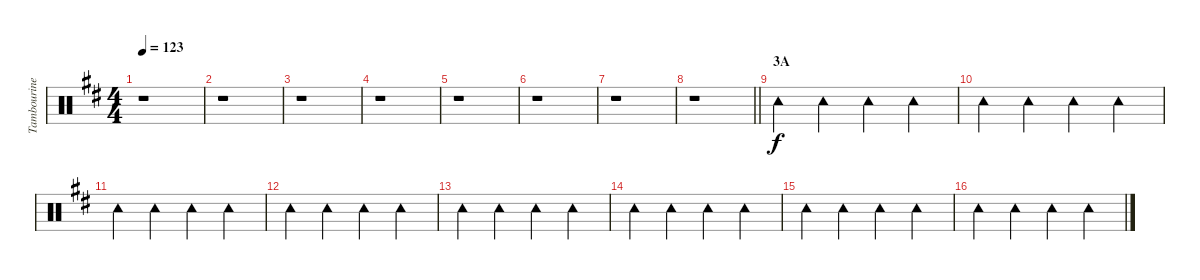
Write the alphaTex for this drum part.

\track ("Tambourine" "Tambourine") {instrument percussion}
\staff {score}
\articulation defaults
\ts (4 4)
\tempo 123
\clef neutral
\ks d
r.1{dy f} |
r.1 |
r.1 |
r.1 |
r.1 |
r.1 |
r.1 |
\barLineRight lightlight
r.1 |
\section ("" "3A")
"Tambourine (hit)".4 "Tambourine (hit)".4 "Tambourine (hit)".4 "Tambourine (hit)".4 |
"Tambourine (hit)".4 "Tambourine (hit)".4 "Tambourine (hit)".4 "Tambourine (hit)".4 |
"Tambourine (hit)".4 "Tambourine (hit)".4 "Tambourine (hit)".4 "Tambourine (hit)".4 |
"Tambourine (hit)".4 "Tambourine (hit)".4 "Tambourine (hit)".4 "Tambourine (hit)".4 |
"Tambourine (hit)".4 "Tambourine (hit)".4 "Tambourine (hit)".4 "Tambourine (hit)".4 |
"Tambourine (hit)".4 "Tambourine (hit)".4 "Tambourine (hit)".4 "Tambourine (hit)".4 |
"Tambourine (hit)".4 "Tambourine (hit)".4 "Tambourine (hit)".4 "Tambourine (hit)".4 |
"Tambourine (hit)".4 "Tambourine (hit)".4 "Tambourine (hit)".4 "Tambourine (hit)".4
